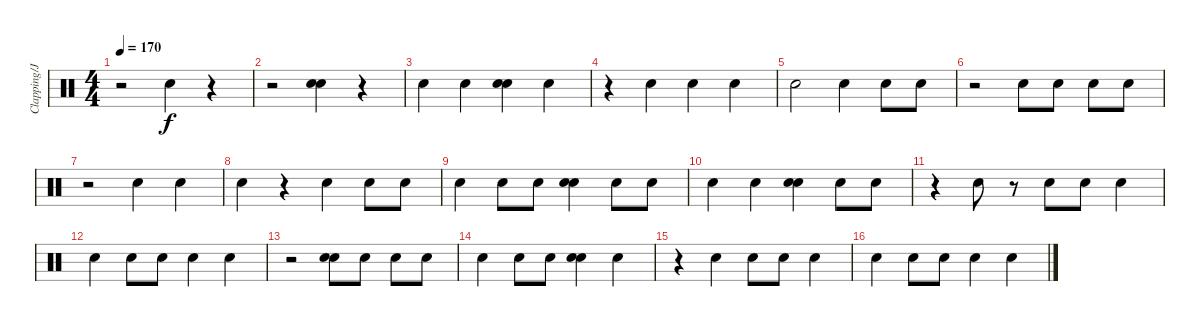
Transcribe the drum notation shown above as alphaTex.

\track ("Clapping/Jay-Z (snare)" "Clapping/J") {instrument percussion}
\staff {score}
\articulation defaults
\ts (4 4)
\tempo 170
\clef neutral
\ks c
r.2{dy f} "Hand Clap (hit)".4 r.4 |
r.2 ("Hand Clap (hit)" "Electric Snare (hit)").4 r.4 |
"Electric Snare (hit)".4 "Electric Snare (hit)".4 ("Hand Clap (hit)" "Electric Snare (hit)").4 "Electric Snare (hit)".4 |
r.4 "Electric Snare (hit)".4 "Hand Clap (hit)".4 "Electric Snare (hit)".4 |
"Electric Snare (hit)".2 "Hand Clap (hit)".4 "Electric Snare (hit)".8 "Electric Snare (hit)".8 |
r.2 "Hand Clap (hit)".8 "Electric Snare (hit)".8 "Electric Snare (hit)".8 "Electric Snare (hit)".8 |
r.2 "Hand Clap (hit)".4 "Electric Snare (hit)".4 |
"Electric Snare (hit)".4 r.4 "Hand Clap (hit)".4 "Electric Snare (hit)".8 "Electric Snare (hit)".8 |
"Electric Snare (hit)".4 "Electric Snare (hit)".8 "Electric Snare (hit)".8 ("Hand Clap (hit)" "Electric Snare (hit)").4 "Electric Snare (hit)".8 "Electric Snare (hit)".8 |
"Electric Snare (hit)".4 "Electric Snare (hit)".4 ("Hand Clap (hit)" "Electric Snare (hit)").4 "Electric Snare (hit)".8 "Electric Snare (hit)".8 |
r.4 "Electric Snare (hit)".8 r.8 "Hand Clap (hit)".8 "Electric Snare (hit)".8 "Electric Snare (hit)".4 |
"Electric Snare (hit)".4 "Electric Snare (hit)".8 "Electric Snare (hit)".8 "Electric Snare (hit)".4 "Electric Snare (hit)".4 |
r.2 ("Hand Clap (hit)" "Electric Snare (hit)").8 "Electric Snare (hit)".8 "Electric Snare (hit)".8 "Electric Snare (hit)".8 |
"Electric Snare (hit)".4 "Electric Snare (hit)".8 "Electric Snare (hit)".8 ("Hand Clap (hit)" "Electric Snare (hit)").4 "Electric Snare (hit)".4 |
r.4 "Electric Snare (hit)".4 "Hand Clap (hit)".8 "Electric Snare (hit)".8 "Electric Snare (hit)".4 |
"Electric Snare (hit)".4 "Electric Snare (hit)".8 "Electric Snare (hit)".8 "Electric Snare (hit)".4 "Electric Snare (hit)".4
